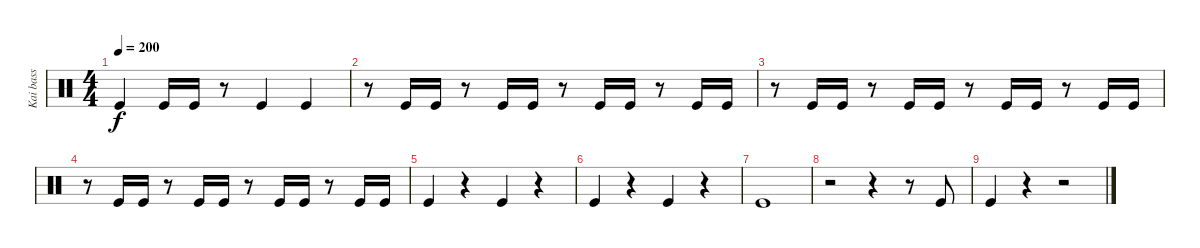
\track ("Kai bass" "Kai bass") {instrument percussion}
\staff {score}
\articulation defaults
\ts (4 4)
\tempo 200
\clef neutral
\ks c "Kick (hit)".4{dy f} "Kick (hit)".16 "Kick (hit)".16
r.8 "Kick (hit)".4 "Kick (hit)".4 |
r.8 "Kick (hit)".16 "Kick (hit)".16 r.8 "Kick (hit)".16 "Kick (hit)".16 r.8 "Kick (hit)".16 "Kick (hit)".16 r.8 "Kick (hit)".16 "Kick (hit)".16 |
r.8 "Kick (hit)".16 "Kick (hit)".16 r.8 "Kick (hit)".16 "Kick (hit)".16 r.8 "Kick (hit)".16 "Kick (hit)".16 r.8 "Kick (hit)".16 "Kick (hit)".16 |
r.8 "Kick (hit)".16 "Kick (hit)".16 r.8 "Kick (hit)".16 "Kick (hit)".16 r.8 "Kick (hit)".16 "Kick (hit)".16 r.8 "Kick (hit)".16 "Kick (hit)".16 |
"Kick (hit)".4 r.4 "Kick (hit)".4 r.4 |
"Kick (hit)".4 r.4 "Kick (hit)".4 r.4 |
"Kick (hit)".1 |
r.2 r.4 r.8 "Kick (hit)".8 |
"Kick (hit)".4 r.4 r.2
